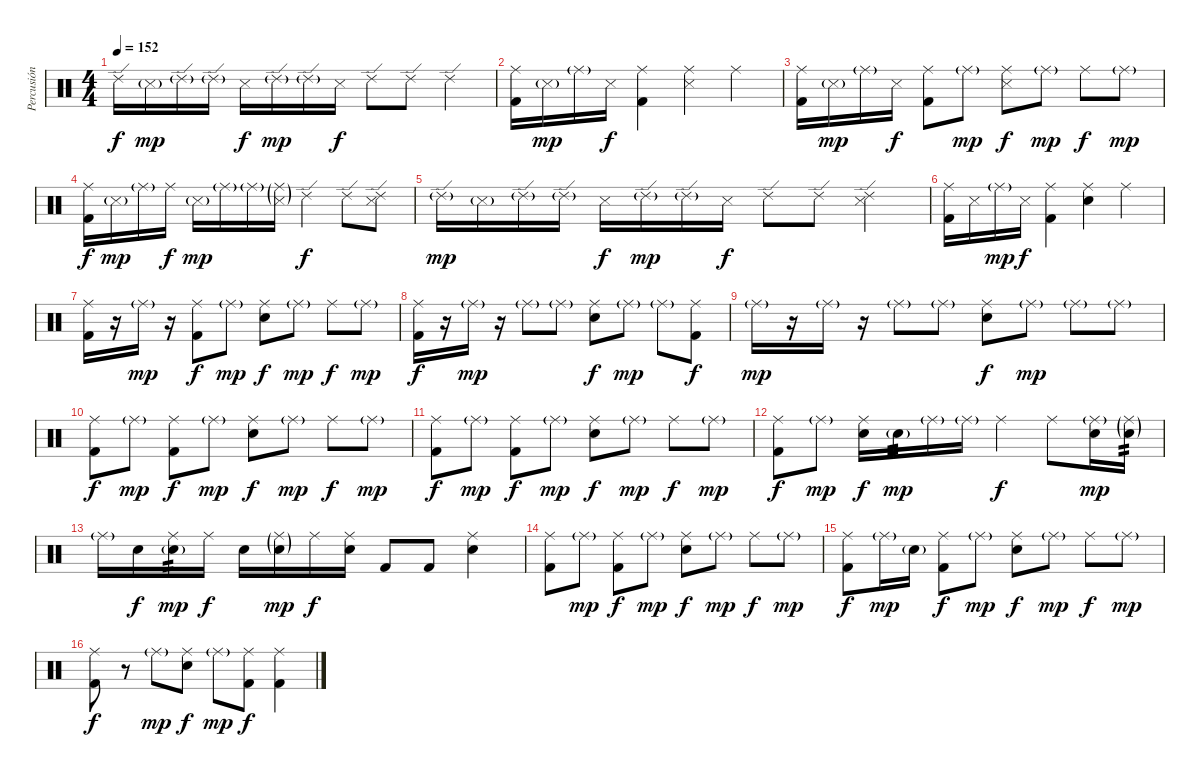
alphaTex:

\track ("Percusión" "Percusión") {instrument percussion}
\staff {score}
\articulation defaults
\ts (4 4)
\tempo 152
\clef neutral
\ks c "Ride (edge) 2".16{dy f} "Snare (side stick) 3"{g}.16{dy mp} "Ride (edge) 2"{g}.16 "Ride (edge) 2"{g}.16 "Snare (side stick) 3".16{dy f} "Ride (edge) 2"{g}.16{dy mp} "Ride (edge) 2"{g}.16 "Snare (side stick) 3".16{dy f} "Ride (edge) 2".8 "Ride (edge) 2".8 "Ride (edge) 2".4
|
("Ride (middle)" "Kick (hit) 2").16 "Snare (side stick) 3"{g}.16{dy mp} "Ride (middle)"{g}.16 "Snare (side stick) 3".16{dy f} ("Ride (middle)" "Kick (hit) 2").4 ("Ride (middle)" "Snare (side stick) 3").4 "Ride (middle)".4 |
("Ride (middle)" "Kick (hit) 2").16 "Snare (side stick) 3"{g}.16{dy mp} "Ride (middle)"{g}.16 "Snare (side stick) 3".16{dy f} ("Ride (middle)" "Kick (hit) 2").8 "Ride (middle)"{g}.8{dy mp} ("Ride (middle)" "Snare (side stick) 3").8{dy f} "Ride (middle)"{g}.8{dy mp} "Ride (middle)".8{dy f} "Ride (middle)"{g}.8{dy mp} |
("Ride (middle)" "Kick (hit) 2").16{dy f} "Snare (side stick) 3"{g}.16{dy mp} "Ride (middle)"{g}.16 "Ride (middle)".16{dy f} "Snare (side stick) 3"{g}.16{dy mp} "Ride (middle)"{g}.16 "Ride (middle)"{g}.16 ("Ride (middle)"{g} "Snare (side stick) 3"{g}).16 "Ride (edge) 2".4{dy f} "Ride (edge) 2".8 ("Ride (edge) 2" "Snare (side stick) 3").8 |
"Ride (edge) 2"{g}.16{dy mp} "Snare (side stick) 3"{g}.16 "Ride (edge) 2"{g}.16 "Ride (edge) 2"{g}.16 "Snare (side stick) 3".16{dy f} "Ride (edge) 2"{g}.16{dy mp} "Ride (edge) 2"{g}.16 "Snare (side stick) 3".16{dy f} "Ride (edge) 2".8 "Ride (edge) 2".8 ("Ride (edge) 2" "Snare (side stick) 3").4 |
("Ride (middle)" "Kick (hit) 2").16 "Snare (side stick) 3".16 "Ride (middle)"{g}.16{dy mp} "Snare (side stick) 3".16{dy f} ("Ride (middle)" "Kick (hit) 2").4 ("Ride (middle)" "Snare (hit) 2").4 "Ride (middle)".4 |
("Ride (middle)" "Kick (hit) 2").16 r.16 "Ride (middle)"{g}.16{dy mp} r.16 ("Ride (middle)" "Kick (hit) 2").8{dy f} "Ride (middle)"{g}.8{dy mp} ("Ride (middle)" "Snare (hit) 2").8{dy f} "Ride (middle)"{g}.8{dy mp} "Ride (middle)".8{dy f} "Ride (middle)"{g}.8{dy mp} |
("Ride (middle)" "Kick (hit) 2").16{dy f} r.16 "Ride (middle)"{g}.16{dy mp} r.16 "Ride (middle)"{g}.8 "Ride (middle)"{g}.8 ("Ride (middle)" "Snare (hit) 2").8{dy f} "Ride (middle)"{g}.8{dy mp} "Ride (middle)"{g}.8 ("Ride (middle)" "Kick (hit) 2").8{dy f} |
"Ride (middle)"{g}.16{dy mp} r.16 "Ride (middle)"{g}.16 r.16 "Ride (middle)"{g}.8 "Ride (middle)"{g}.8 ("Ride (middle)" "Snare (hit) 2").8{dy f} "Ride (middle)"{g}.8{dy mp} "Ride (middle)"{g}.8 "Ride (middle)"{g}.8 |
("Ride (middle)" "Kick (hit) 2").8{dy f} "Ride (middle)"{g}.8{dy mp} ("Ride (middle)" "Kick (hit) 2").8{dy f} "Ride (middle)"{g}.8{dy mp} ("Ride (middle)" "Snare (hit) 2").8{dy f} "Ride (middle)"{g}.8{dy mp} "Ride (middle)".8{dy f} "Ride (middle)"{g}.8{dy mp} |
("Ride (middle)" "Kick (hit) 2").8{dy f} "Ride (middle)"{g}.8{dy mp} ("Ride (middle)" "Kick (hit) 2").8{dy f} "Ride (middle)"{g}.8{dy mp} ("Ride (middle)" "Snare (hit) 2").8{dy f} "Ride (middle)"{g}.8{dy mp} "Ride (middle)".8{dy f} "Ride (middle)"{g}.8{dy mp} |
("Ride (middle)" "Kick (hit) 2").8{dy f} "Ride (middle)"{g}.8{dy mp} ("Ride (middle)" "Snare (hit) 2").16{dy f} "Snare (hit) 2"{g}.16{tp 2 dy mp} "Ride (middle)"{g}.16 "Ride (middle)"{g}.16 "Ride (middle)".4{dy f} "Ride (middle)".8 ("Ride (middle)"{g} "Snare (hit) 2").16{dy mp} ("Ride (middle)"{g} "Snare (hit) 2"{g}).16{tp 2} |
"Ride (middle)"{g}.16 "Snare (hit) 2".16{dy f} ("Ride (middle)" "Snare (hit) 2"{g}).16{tp 2 dy mp} "Ride (middle)".16{dy f} "Snare (hit) 2".16 ("Ride (middle)"{g} "Snare (hit) 2"{g}).16{dy mp} "Ride (middle)".16{dy f} ("Ride (middle)" "Snare (hit) 2").16 "Kick (hit) 2".8 "Kick (hit) 2".8 ("Ride (middle)" "Snare (hit) 2").4 |
("Ride (middle)" "Kick (hit) 2").8 "Ride (middle)"{g}.8{dy mp} ("Ride (middle)" "Kick (hit) 2").8{dy f} "Ride (middle)"{g}.8{dy mp} ("Ride (middle)" "Snare (hit) 2").8{dy f} "Ride (middle)"{g}.8{dy mp} "Ride (middle)".8{dy f} "Ride (middle)"{g}.8{dy mp} |
("Ride (middle)" "Kick (hit) 2").8{dy f} "Ride (middle)"{g}.16{dy mp} "Snare (hit) 2"{g}.16 ("Ride (middle)" "Kick (hit) 2").8{dy f} "Ride (middle)"{g}.8{dy mp} ("Ride (middle)" "Snare (hit) 2").8{dy f} "Ride (middle)"{g}.8{dy mp} "Ride (middle)".8{dy f} "Ride (middle)"{g}.8{dy mp} |
("Ride (middle)" "Kick (hit) 2").8{dy f} r.8 "Ride (middle)"{g}.8{dy mp} ("Ride (middle)" "Snare (hit) 2").8{dy f} "Ride (middle)"{g}.8{dy mp} ("Ride (middle)" "Kick (hit) 2").8{dy f} ("Ride (middle)" "Kick (hit) 2").4
